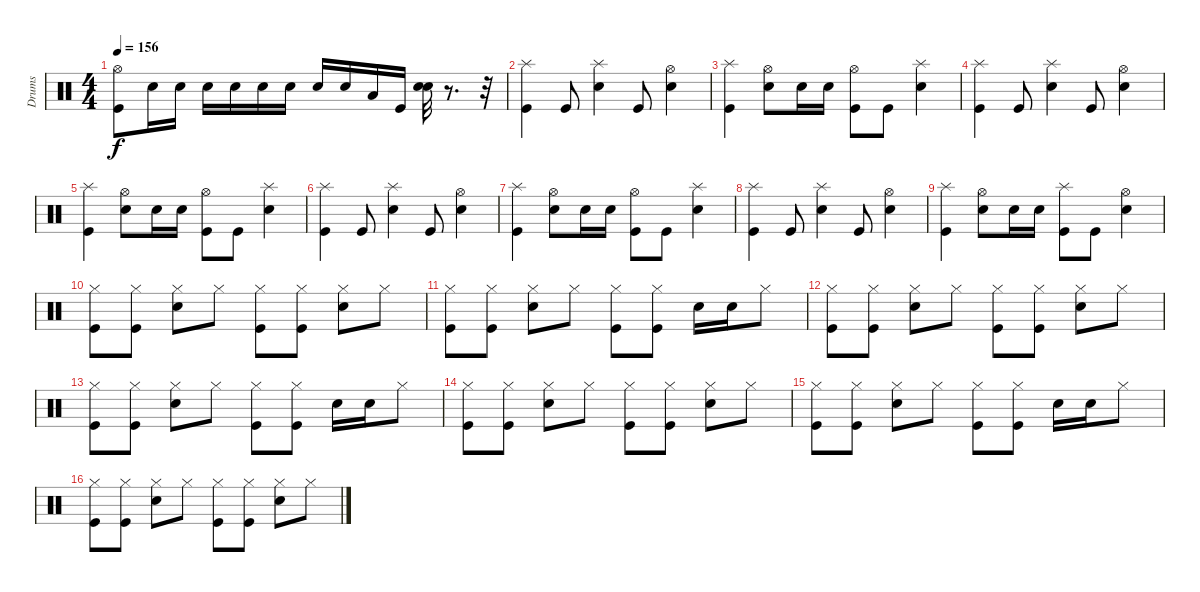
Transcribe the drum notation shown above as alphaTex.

\track ("Drums" "Drums") {instrument percussion}
\staff {score}
\articulation defaults
\ts (4 4)
\tempo 156
\clef neutral
\ks c
("Hi-Hat (open)" "Kick (hit)").8{dy f} "Snare (hit) 2".16 "Snare (hit) 2".16 "Snare (hit) 2".16 "Snare (hit) 2".16 "Snare (hit) 2".16 "Snare (hit) 2".16 "Snare (hit) 2".16 "Snare (hit) 2".16 "Low Tom (hit)".16 "Kick (hit)".16 ("Snare (hit) 2" "Snare (hit) 2").32 r.8{d} r.32 |
("Splash (hit)" "Kick (hit)").4 "Kick (hit)".8 ("Splash (hit)" "Snare (hit) 2").4 "Kick (hit)".8 ("Hi-Hat (open)" "Snare (hit) 2").4 |
("Splash (hit)" "Kick (hit)").4 ("Hi-Hat (open)" "Snare (hit) 2").8 "Snare (hit) 2".16 "Snare (hit) 2".16 ("Hi-Hat (open)" "Kick (hit)").8 "Kick (hit)".8 ("Splash (hit)" "Snare (hit) 2").4 |
("Splash (hit)" "Kick (hit)").4 "Kick (hit)".8 ("Splash (hit)" "Snare (hit) 2").4 "Kick (hit)".8 ("Hi-Hat (open)" "Snare (hit) 2").4 |
("Splash (hit)" "Kick (hit)").4 ("Hi-Hat (open)" "Snare (hit) 2").8 "Snare (hit) 2".16 "Snare (hit) 2".16 ("Hi-Hat (open)" "Kick (hit)").8 "Kick (hit)".8 ("Splash (hit)" "Snare (hit) 2").4 |
("Splash (hit)" "Kick (hit)").4 "Kick (hit)".8 ("Splash (hit)" "Snare (hit) 2").4 "Kick (hit)".8 ("Hi-Hat (open)" "Snare (hit) 2").4 |
("Splash (hit)" "Kick (hit)").4 ("Hi-Hat (open)" "Snare (hit) 2").8 "Snare (hit) 2".16 "Snare (hit) 2".16 ("Hi-Hat (open)" "Kick (hit)").8 "Kick (hit)".8 ("Splash (hit)" "Snare (hit) 2").4 |
("Splash (hit)" "Kick (hit)").4 "Kick (hit)".8 ("Splash (hit)" "Snare (hit) 2").4 "Kick (hit)".8 ("Hi-Hat (open)" "Snare (hit) 2").4 |
("Splash (hit)" "Kick (hit)").4 ("Hi-Hat (open)" "Snare (hit) 2").8 "Snare (hit) 2".16 "Snare (hit) 2".16 ("Splash (hit)" "Kick (hit)").8 "Kick (hit)".8 ("Hi-Hat (open)" "Snare (hit) 2").4 |
("Hi-Hat (closed)" "Kick (hit)").8 ("Hi-Hat (closed)" "Kick (hit)").8 ("Hi-Hat (closed)" "Snare (hit) 2").8 "Hi-Hat (closed)".8 ("Hi-Hat (closed)" "Kick (hit)").8 ("Hi-Hat (closed)" "Kick (hit)").8 ("Hi-Hat (closed)" "Snare (hit) 2").8 "Hi-Hat (closed)".8 |
("Hi-Hat (closed)" "Kick (hit)").8 ("Hi-Hat (closed)" "Kick (hit)").8 ("Hi-Hat (closed)" "Snare (hit) 2").8 "Hi-Hat (closed)".8 ("Hi-Hat (closed)" "Kick (hit)").8 ("Hi-Hat (closed)" "Kick (hit)").8 "Snare (hit) 2".16 "Snare (hit) 2".16 "Hi-Hat (closed)".8 |
("Hi-Hat (closed)" "Kick (hit)").8 ("Hi-Hat (closed)" "Kick (hit)").8 ("Hi-Hat (closed)" "Snare (hit) 2").8 "Hi-Hat (closed)".8 ("Hi-Hat (closed)" "Kick (hit)").8 ("Hi-Hat (closed)" "Kick (hit)").8 ("Hi-Hat (closed)" "Snare (hit) 2").8 "Hi-Hat (closed)".8 |
("Hi-Hat (closed)" "Kick (hit)").8 ("Hi-Hat (closed)" "Kick (hit)").8 ("Hi-Hat (closed)" "Snare (hit) 2").8 "Hi-Hat (closed)".8 ("Hi-Hat (closed)" "Kick (hit)").8 ("Hi-Hat (closed)" "Kick (hit)").8 "Snare (hit) 2".16 "Snare (hit) 2".16 "Hi-Hat (closed)".8 |
("Hi-Hat (closed)" "Kick (hit)").8 ("Hi-Hat (closed)" "Kick (hit)").8 ("Hi-Hat (closed)" "Snare (hit) 2").8 "Hi-Hat (closed)".8 ("Hi-Hat (closed)" "Kick (hit)").8 ("Hi-Hat (closed)" "Kick (hit)").8 ("Hi-Hat (closed)" "Snare (hit) 2").8 "Hi-Hat (closed)".8 |
("Hi-Hat (closed)" "Kick (hit)").8 ("Hi-Hat (closed)" "Kick (hit)").8 ("Hi-Hat (closed)" "Snare (hit) 2").8 "Hi-Hat (closed)".8 ("Hi-Hat (closed)" "Kick (hit)").8 ("Hi-Hat (closed)" "Kick (hit)").8 "Snare (hit) 2".16 "Snare (hit) 2".16 "Hi-Hat (closed)".8 |
("Hi-Hat (closed)" "Kick (hit)").8 ("Hi-Hat (closed)" "Kick (hit)").8 ("Hi-Hat (closed)" "Snare (hit) 2").8 "Hi-Hat (closed)".8 ("Hi-Hat (closed)" "Kick (hit)").8 ("Hi-Hat (closed)" "Kick (hit)").8 ("Hi-Hat (closed)" "Snare (hit) 2").8 "Hi-Hat (closed)".8
